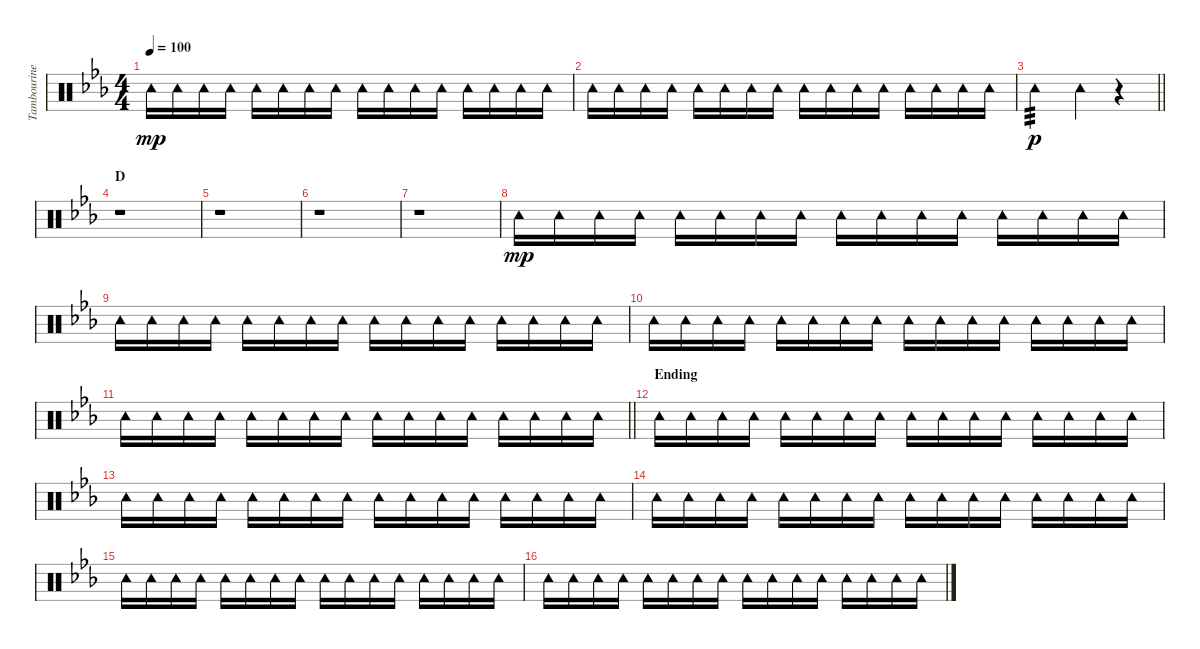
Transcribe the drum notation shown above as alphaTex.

\track ("Tambourine" "Tambourine") {instrument percussion}
\staff {score}
\articulation defaults
\ts (4 4)
\tempo 100
\clef neutral
\ks eb "Tambourine (hit)".16{dy mp} "Tambourine (hit)".16 "Tambourine (hit)".16 "Tambourine (hit)".16 "Tambourine (hit)".16 "Tambourine (hit)".16 "Tambourine (hit)".16 "Tambourine (hit)".16 "Tambourine (hit)".16 "Tambourine (hit)".16 "Tambourine (hit)".16 "Tambourine (hit)".16 "Tambourine (hit)".16 "Tambourine (hit)".16 "Tambourine (hit)".16 "Tambourine (hit)".16
|
"Tambourine (hit)".16 "Tambourine (hit)".16 "Tambourine (hit)".16 "Tambourine (hit)".16 "Tambourine (hit)".16 "Tambourine (hit)".16 "Tambourine (hit)".16 "Tambourine (hit)".16 "Tambourine (hit)".16 "Tambourine (hit)".16 "Tambourine (hit)".16 "Tambourine (hit)".16 "Tambourine (hit)".16 "Tambourine (hit)".16 "Tambourine (hit)".16 "Tambourine (hit)".16 |
\barLineRight lightlight "Tambourine (hit)".2{tp 3 dy p} "Tambourine (hit)".4
r.4 |
\section ("" "D")
r.1 |
r.1 |
r.1 |
r.1 |
"Tambourine (hit)".16{dy mp} "Tambourine (hit)".16 "Tambourine (hit)".16 "Tambourine (hit)".16 "Tambourine (hit)".16 "Tambourine (hit)".16 "Tambourine (hit)".16 "Tambourine (hit)".16 "Tambourine (hit)".16 "Tambourine (hit)".16 "Tambourine (hit)".16 "Tambourine (hit)".16 "Tambourine (hit)".16 "Tambourine (hit)".16 "Tambourine (hit)".16 "Tambourine (hit)".16 |
"Tambourine (hit)".16 "Tambourine (hit)".16 "Tambourine (hit)".16 "Tambourine (hit)".16 "Tambourine (hit)".16 "Tambourine (hit)".16 "Tambourine (hit)".16 "Tambourine (hit)".16 "Tambourine (hit)".16 "Tambourine (hit)".16 "Tambourine (hit)".16 "Tambourine (hit)".16 "Tambourine (hit)".16 "Tambourine (hit)".16 "Tambourine (hit)".16 "Tambourine (hit)".16 |
"Tambourine (hit)".16 "Tambourine (hit)".16 "Tambourine (hit)".16 "Tambourine (hit)".16 "Tambourine (hit)".16 "Tambourine (hit)".16 "Tambourine (hit)".16 "Tambourine (hit)".16 "Tambourine (hit)".16 "Tambourine (hit)".16 "Tambourine (hit)".16 "Tambourine (hit)".16 "Tambourine (hit)".16 "Tambourine (hit)".16 "Tambourine (hit)".16 "Tambourine (hit)".16 |
\barLineRight lightlight "Tambourine (hit)".16 "Tambourine (hit)".16 "Tambourine (hit)".16 "Tambourine (hit)".16 "Tambourine (hit)".16 "Tambourine (hit)".16 "Tambourine (hit)".16 "Tambourine (hit)".16 "Tambourine (hit)".16 "Tambourine (hit)".16 "Tambourine (hit)".16 "Tambourine (hit)".16 "Tambourine (hit)".16 "Tambourine (hit)".16 "Tambourine (hit)".16 "Tambourine (hit)".16
|
\section ("" "Ending")
"Tambourine (hit)".16 "Tambourine (hit)".16 "Tambourine (hit)".16 "Tambourine (hit)".16 "Tambourine (hit)".16 "Tambourine (hit)".16 "Tambourine (hit)".16 "Tambourine (hit)".16 "Tambourine (hit)".16 "Tambourine (hit)".16 "Tambourine (hit)".16 "Tambourine (hit)".16 "Tambourine (hit)".16 "Tambourine (hit)".16 "Tambourine (hit)".16 "Tambourine (hit)".16 |
"Tambourine (hit)".16 "Tambourine (hit)".16 "Tambourine (hit)".16 "Tambourine (hit)".16 "Tambourine (hit)".16 "Tambourine (hit)".16 "Tambourine (hit)".16 "Tambourine (hit)".16 "Tambourine (hit)".16 "Tambourine (hit)".16 "Tambourine (hit)".16 "Tambourine (hit)".16 "Tambourine (hit)".16 "Tambourine (hit)".16 "Tambourine (hit)".16 "Tambourine (hit)".16 |
"Tambourine (hit)".16 "Tambourine (hit)".16 "Tambourine (hit)".16 "Tambourine (hit)".16 "Tambourine (hit)".16 "Tambourine (hit)".16 "Tambourine (hit)".16 "Tambourine (hit)".16 "Tambourine (hit)".16 "Tambourine (hit)".16 "Tambourine (hit)".16 "Tambourine (hit)".16 "Tambourine (hit)".16 "Tambourine (hit)".16 "Tambourine (hit)".16 "Tambourine (hit)".16 |
"Tambourine (hit)".16 "Tambourine (hit)".16 "Tambourine (hit)".16 "Tambourine (hit)".16 "Tambourine (hit)".16 "Tambourine (hit)".16 "Tambourine (hit)".16 "Tambourine (hit)".16 "Tambourine (hit)".16 "Tambourine (hit)".16 "Tambourine (hit)".16 "Tambourine (hit)".16 "Tambourine (hit)".16 "Tambourine (hit)".16 "Tambourine (hit)".16 "Tambourine (hit)".16 |
"Tambourine (hit)".16 "Tambourine (hit)".16 "Tambourine (hit)".16 "Tambourine (hit)".16 "Tambourine (hit)".16 "Tambourine (hit)".16 "Tambourine (hit)".16 "Tambourine (hit)".16 "Tambourine (hit)".16 "Tambourine (hit)".16 "Tambourine (hit)".16 "Tambourine (hit)".16 "Tambourine (hit)".16 "Tambourine (hit)".16 "Tambourine (hit)".16 "Tambourine (hit)".16
